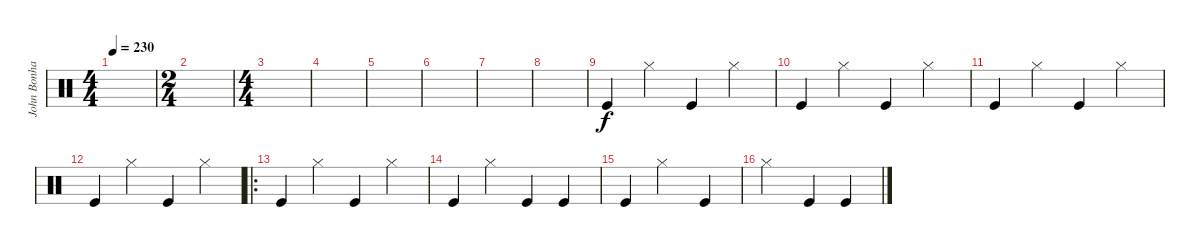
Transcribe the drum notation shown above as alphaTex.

\track ("John Bonham" "John Bonha") {instrument percussion}
\staff {score}
\articulation defaults
\ts (4 4)
\tempo 230
\clef neutral
\ks c
|
\ts (2 4)
|
\ts (4 4)
|
|
|
|
|
|
"Kick (hit)".4 "Hi-Hat (closed)".4 "Kick (hit)".4 "Hi-Hat (closed)".4 |
"Kick (hit)".4 "Hi-Hat (closed)".4 "Kick (hit)".4 "Hi-Hat (closed)".4 |
"Kick (hit)".4 "Hi-Hat (closed)".4 "Kick (hit)".4 "Hi-Hat (closed)".4 |
"Kick (hit)".4 "Hi-Hat (closed)".4 "Kick (hit)".4 "Hi-Hat (closed)".4 |
\ro "Kick (hit)".4 "Hi-Hat (closed)".4 "Kick (hit)".4 "Hi-Hat (closed)".4
|
"Kick (hit)".4 "Hi-Hat (closed)".4 "Kick (hit)".4 "Kick (hit)".4 |
"Kick (hit)".4 "Hi-Hat (closed)".2 "Kick (hit)".4 |
"Hi-Hat (closed)".2 "Kick (hit)".4 "Kick (hit)".4
